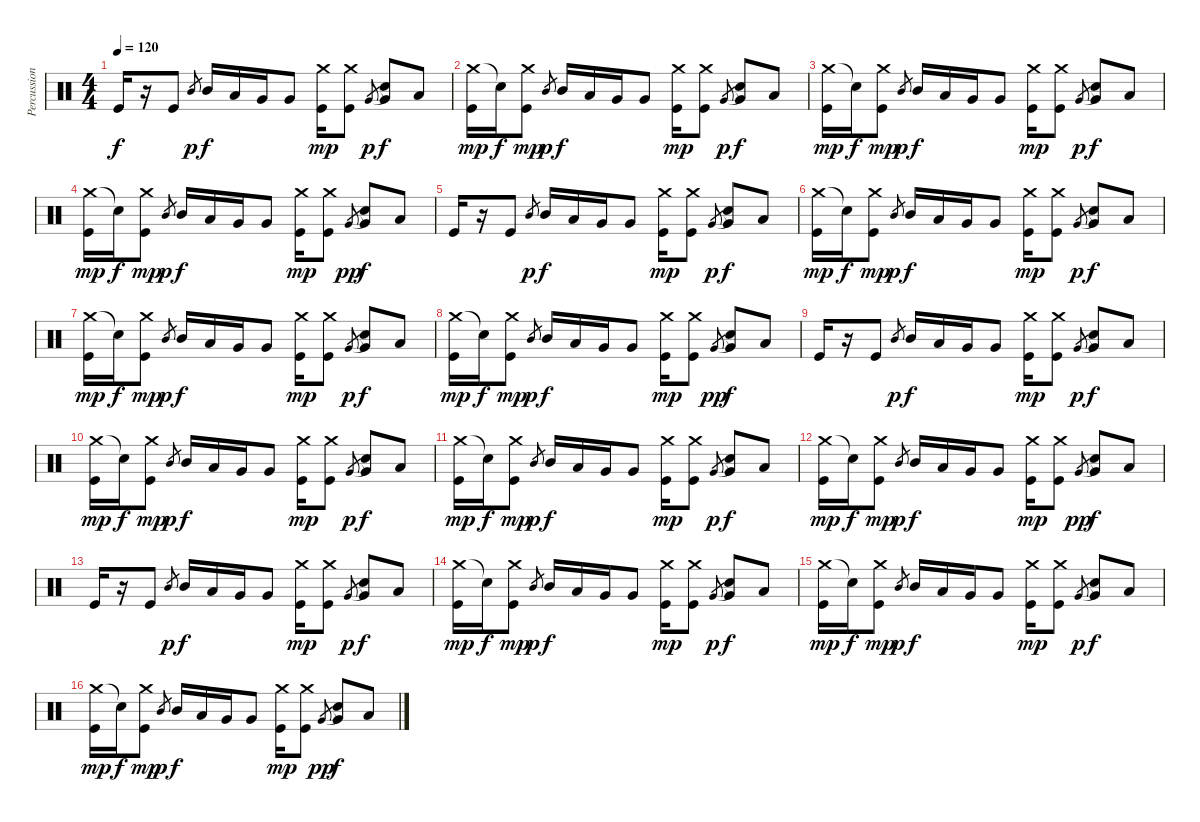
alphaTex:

\track ("Percussion" "Percussion") {instrument percussion}
\staff {score}
\articulation defaults
\ts (4 4)
\tempo 120
\clef neutral
\ks c "Kick (hit)".16{dy f}
r.16 "Kick (hit)".8 "Mid Tom (hit)".8{gr dy p} "Mid Tom (hit)".16{dy f} "Low Tom (hit)".16 "Very Low Tom (hit)".16 "Very Low Tom (hit)".8 ("Crash medium (hit)" "Kick (hit)").16{dy mp} ("Crash medium (hit)" "Kick (hit)").8 "Very Low Tom (hit)".8{gr dy p} ("Snare (hit)"{t} "Very Low Tom (hit)").8{dy f} "Low Tom (hit)".8 |
("Crash medium (hit)" "Kick (hit)").16{dy mp} "Snare (hit)"{t}.16{dy f} ("Crash medium (hit)" "Kick (hit)").8{dy mp} "Mid Tom (hit)".8{gr dy p} "Mid Tom (hit)".16{dy f} "Low Tom (hit)".16 "Very Low Tom (hit)".16 "Very Low Tom (hit)".8 ("Crash medium (hit)" "Kick (hit)").16{dy mp} ("Crash medium (hit)" "Kick (hit)").8 "Very Low Tom (hit)".8{gr dy p} ("Snare (hit)"{t} "Very Low Tom (hit)").8{dy f} "Low Tom (hit)".8 |
("Crash medium (hit)" "Kick (hit)").16{dy mp} "Snare (hit)"{t}.16{dy f} ("Crash medium (hit)" "Kick (hit)").8{dy mp} "Mid Tom (hit)".8{gr dy p} "Mid Tom (hit)".16{dy f} "Low Tom (hit)".16 "Very Low Tom (hit)".16 "Very Low Tom (hit)".8 ("Crash medium (hit)" "Kick (hit)").16{dy mp} ("Crash medium (hit)" "Kick (hit)").8 "Very Low Tom (hit)".8{gr dy p} ("Snare (hit)"{t} "Very Low Tom (hit)").8{dy f} "Low Tom (hit)".8 |
("Crash medium (hit)" "Kick (hit)").16{dy mp} "Snare (hit)"{t}.16{dy f} ("Crash medium (hit)" "Kick (hit)").8{dy mp} "Mid Tom (hit)".8{gr dy p} "Mid Tom (hit)".16{dy f} "Low Tom (hit)".16 "Very Low Tom (hit)".16 "Very Low Tom (hit)".8 ("Crash medium (hit)" "Kick (hit)").16{dy mp} ("Crash medium (hit)" "Kick (hit)").8 "Very Low Tom (hit)".8{gr dy pp} ("Snare (hit)"{t} "Very Low Tom (hit)").8{dy f} "Low Tom (hit)".8 |
"Kick (hit)".16 r.16 "Kick (hit)".8 "Mid Tom (hit)".8{gr dy p} "Mid Tom (hit)".16{dy f} "Low Tom (hit)".16 "Very Low Tom (hit)".16 "Very Low Tom (hit)".8 ("Crash medium (hit)" "Kick (hit)").16{dy mp} ("Crash medium (hit)" "Kick (hit)").8 "Very Low Tom (hit)".8{gr dy p} ("Snare (hit)"{t} "Very Low Tom (hit)").8{dy f} "Low Tom (hit)".8 |
("Crash medium (hit)" "Kick (hit)").16{dy mp} "Snare (hit)"{t}.16{dy f} ("Crash medium (hit)" "Kick (hit)").8{dy mp} "Mid Tom (hit)".8{gr dy p} "Mid Tom (hit)".16{dy f} "Low Tom (hit)".16 "Very Low Tom (hit)".16 "Very Low Tom (hit)".8 ("Crash medium (hit)" "Kick (hit)").16{dy mp} ("Crash medium (hit)" "Kick (hit)").8 "Very Low Tom (hit)".8{gr dy p} ("Snare (hit)"{t} "Very Low Tom (hit)").8{dy f} "Low Tom (hit)".8 |
("Crash medium (hit)" "Kick (hit)").16{dy mp} "Snare (hit)"{t}.16{dy f} ("Crash medium (hit)" "Kick (hit)").8{dy mp} "Mid Tom (hit)".8{gr dy p} "Mid Tom (hit)".16{dy f} "Low Tom (hit)".16 "Very Low Tom (hit)".16 "Very Low Tom (hit)".8 ("Crash medium (hit)" "Kick (hit)").16{dy mp} ("Crash medium (hit)" "Kick (hit)").8 "Very Low Tom (hit)".8{gr dy p} ("Snare (hit)"{t} "Very Low Tom (hit)").8{dy f} "Low Tom (hit)".8 |
("Crash medium (hit)" "Kick (hit)").16{dy mp} "Snare (hit)"{t}.16{dy f} ("Crash medium (hit)" "Kick (hit)").8{dy mp} "Mid Tom (hit)".8{gr dy p} "Mid Tom (hit)".16{dy f} "Low Tom (hit)".16 "Very Low Tom (hit)".16 "Very Low Tom (hit)".8 ("Crash medium (hit)" "Kick (hit)").16{dy mp} ("Crash medium (hit)" "Kick (hit)").8 "Very Low Tom (hit)".8{gr dy pp} ("Snare (hit)"{t} "Very Low Tom (hit)").8{dy f} "Low Tom (hit)".8 |
"Kick (hit)".16 r.16 "Kick (hit)".8 "Mid Tom (hit)".8{gr dy p} "Mid Tom (hit)".16{dy f} "Low Tom (hit)".16 "Very Low Tom (hit)".16 "Very Low Tom (hit)".8 ("Crash medium (hit)" "Kick (hit)").16{dy mp} ("Crash medium (hit)" "Kick (hit)").8 "Very Low Tom (hit)".8{gr dy p} ("Snare (hit)"{t} "Very Low Tom (hit)").8{dy f} "Low Tom (hit)".8 |
("Crash medium (hit)" "Kick (hit)").16{dy mp} "Snare (hit)"{t}.16{dy f} ("Crash medium (hit)" "Kick (hit)").8{dy mp} "Mid Tom (hit)".8{gr dy p} "Mid Tom (hit)".16{dy f} "Low Tom (hit)".16 "Very Low Tom (hit)".16 "Very Low Tom (hit)".8 ("Crash medium (hit)" "Kick (hit)").16{dy mp} ("Crash medium (hit)" "Kick (hit)").8 "Very Low Tom (hit)".8{gr dy p} ("Snare (hit)"{t} "Very Low Tom (hit)").8{dy f} "Low Tom (hit)".8 |
("Crash medium (hit)" "Kick (hit)").16{dy mp} "Snare (hit)"{t}.16{dy f} ("Crash medium (hit)" "Kick (hit)").8{dy mp} "Mid Tom (hit)".8{gr dy p} "Mid Tom (hit)".16{dy f} "Low Tom (hit)".16 "Very Low Tom (hit)".16 "Very Low Tom (hit)".8 ("Crash medium (hit)" "Kick (hit)").16{dy mp} ("Crash medium (hit)" "Kick (hit)").8 "Very Low Tom (hit)".8{gr dy p} ("Snare (hit)"{t} "Very Low Tom (hit)").8{dy f} "Low Tom (hit)".8 |
("Crash medium (hit)" "Kick (hit)").16{dy mp} "Snare (hit)"{t}.16{dy f} ("Crash medium (hit)" "Kick (hit)").8{dy mp} "Mid Tom (hit)".8{gr dy p} "Mid Tom (hit)".16{dy f} "Low Tom (hit)".16 "Very Low Tom (hit)".16 "Very Low Tom (hit)".8 ("Crash medium (hit)" "Kick (hit)").16{dy mp} ("Crash medium (hit)" "Kick (hit)").8 "Very Low Tom (hit)".8{gr dy pp} ("Snare (hit)"{t} "Very Low Tom (hit)").8{dy f} "Low Tom (hit)".8 |
"Kick (hit)".16 r.16 "Kick (hit)".8 "Mid Tom (hit)".8{gr dy p} "Mid Tom (hit)".16{dy f} "Low Tom (hit)".16 "Very Low Tom (hit)".16 "Very Low Tom (hit)".8 ("Crash medium (hit)" "Kick (hit)").16{dy mp} ("Crash medium (hit)" "Kick (hit)").8 "Very Low Tom (hit)".8{gr dy p} ("Snare (hit)"{t} "Very Low Tom (hit)").8{dy f} "Low Tom (hit)".8 |
("Crash medium (hit)" "Kick (hit)").16{dy mp} "Snare (hit)"{t}.16{dy f} ("Crash medium (hit)" "Kick (hit)").8{dy mp} "Mid Tom (hit)".8{gr dy p} "Mid Tom (hit)".16{dy f} "Low Tom (hit)".16 "Very Low Tom (hit)".16 "Very Low Tom (hit)".8 ("Crash medium (hit)" "Kick (hit)").16{dy mp} ("Crash medium (hit)" "Kick (hit)").8 "Very Low Tom (hit)".8{gr dy p} ("Snare (hit)"{t} "Very Low Tom (hit)").8{dy f} "Low Tom (hit)".8 |
("Crash medium (hit)" "Kick (hit)").16{dy mp} "Snare (hit)"{t}.16{dy f} ("Crash medium (hit)" "Kick (hit)").8{dy mp} "Mid Tom (hit)".8{gr dy p} "Mid Tom (hit)".16{dy f} "Low Tom (hit)".16 "Very Low Tom (hit)".16 "Very Low Tom (hit)".8 ("Crash medium (hit)" "Kick (hit)").16{dy mp} ("Crash medium (hit)" "Kick (hit)").8 "Very Low Tom (hit)".8{gr dy p} ("Snare (hit)"{t} "Very Low Tom (hit)").8{dy f} "Low Tom (hit)".8 |
("Crash medium (hit)" "Kick (hit)").16{dy mp} "Snare (hit)"{t}.16{dy f} ("Crash medium (hit)" "Kick (hit)").8{dy mp} "Mid Tom (hit)".8{gr dy p} "Mid Tom (hit)".16{dy f} "Low Tom (hit)".16 "Very Low Tom (hit)".16 "Very Low Tom (hit)".8 ("Crash medium (hit)" "Kick (hit)").16{dy mp} ("Crash medium (hit)" "Kick (hit)").8 "Very Low Tom (hit)".8{gr dy pp} ("Snare (hit)"{t} "Very Low Tom (hit)").8{dy f} "Low Tom (hit)".8
